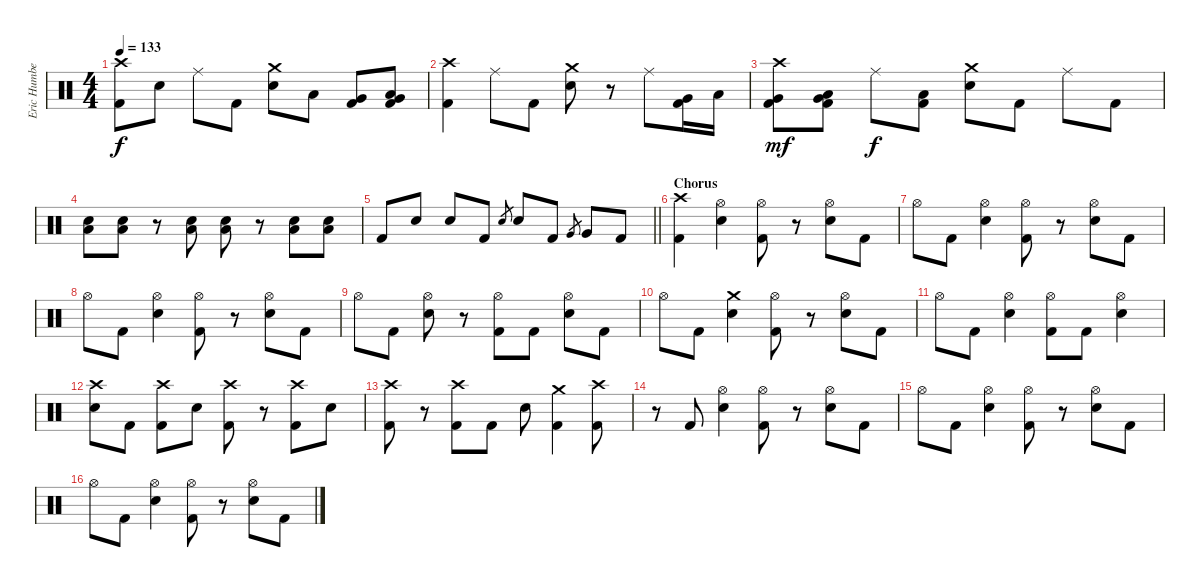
\track ("Eric Humbert (Drums)" "Eric Humbe") {instrument percussion}
\staff {score}
\articulation defaults
\ts (4 4)
\tempo 133
\clef neutral
\ks c
("Crash high (hit)" "Kick (hit) 2").8{dy f} "Electric Snare (hit)".8 "Ride (middle)".8 "Kick (hit) 2".8 ("Crash medium (hit)" "Electric Snare (hit)").8 "Low Tom (hit)".8 ("Very Low Tom (hit)" "Kick (hit) 2").8 ("Very Low Tom (hit)" "Low Floor Tom (hit)" "Kick (hit) 2").8 |
("Crash high (hit)" "Kick (hit) 2").4 "Ride (middle)".8 "Kick (hit) 2".8 ("Crash medium (hit)" "Electric Snare (hit)").8 r.8 "Ride (middle)".8 ("Very Low Tom (hit)" "Kick (hit) 2").16 "Low Tom (hit)".16 |
("Crash high (hit)" "Very Low Tom (hit)" "Kick (hit) 2").8{dy mf} ("Very Low Tom (hit)" "Low Floor Tom (hit)" "Kick (hit) 2").8 "Ride (middle)".8{dy f} ("Low Floor Tom (hit)" "Kick (hit) 2").8 ("Crash medium (hit)" "Electric Snare (hit)").8 "Kick (hit) 2".8 "Ride (middle)".8 "Kick (hit) 2".8 |
("Low Floor Tom (hit)" "Electric Snare (hit)").8 ("Low Floor Tom (hit)" "Electric Snare (hit)").8 r.8 ("Low Floor Tom (hit)" "Electric Snare (hit)").8 ("Low Floor Tom (hit)" "Electric Snare (hit)").8 r.8 ("Low Floor Tom (hit)" "Electric Snare (hit)").8 ("Low Floor Tom (hit)" "Electric Snare (hit)").8 |
\barLineRight lightlight "Kick (hit) 2".8 "Electric Snare (hit)".8 "Electric Snare (hit)".8 "Kick (hit) 2".8 "Electric Snare (hit)".8{gr} "Electric Snare (hit)".8 "Kick (hit) 2".8 "Very Low Tom (hit)".8{gr} "Very Low Tom (hit)".8 "Kick (hit) 2".8
|
\section ("" "Chorus")
("Crash high (hit)" "Kick (hit) 2").4 ("Hi-Hat (open)" "Electric Snare (hit)").4 ("Hi-Hat (open)" "Kick (hit) 2").8 r.8 ("Hi-Hat (open)" "Electric Snare (hit)").8 "Kick (hit) 2".8 |
"Hi-Hat (open)".8 "Kick (hit) 2".8 ("Hi-Hat (open)" "Electric Snare (hit)").4 ("Hi-Hat (open)" "Kick (hit) 2").8 r.8 ("Hi-Hat (open)" "Electric Snare (hit)").8 "Kick (hit) 2".8 |
"Hi-Hat (open)".8 "Kick (hit) 2".8 ("Hi-Hat (open)" "Electric Snare (hit)").4 ("Hi-Hat (open)" "Kick (hit) 2").8 r.8 ("Hi-Hat (open)" "Electric Snare (hit)").8 "Kick (hit) 2".8 |
"Hi-Hat (open)".8 "Kick (hit) 2".8 ("Hi-Hat (open)" "Electric Snare (hit)").8 r.8 ("Hi-Hat (open)" "Kick (hit) 2").8 "Kick (hit) 2".8 ("Hi-Hat (open)" "Electric Snare (hit)").8 "Kick (hit) 2".8 |
"Hi-Hat (open)".8 "Kick (hit) 2".8 ("Crash medium (hit)" "Electric Snare (hit)").4 ("Hi-Hat (open)" "Kick (hit) 2").8 r.8 ("Hi-Hat (open)" "Electric Snare (hit)").8 "Kick (hit) 2".8 |
"Hi-Hat (open)".8 "Kick (hit) 2".8 ("Hi-Hat (open)" "Electric Snare (hit)").4 ("Hi-Hat (open)" "Kick (hit) 2").8 "Kick (hit) 2".8 ("Hi-Hat (open)" "Electric Snare (hit)").4 |
("Crash high (hit)" "Electric Snare (hit)").8 "Kick (hit) 2".8 ("Crash high (hit)" "Kick (hit) 2").8 "Electric Snare (hit)".8 ("Crash high (hit)" "Kick (hit) 2").8 r.8 ("Crash high (hit)" "Kick (hit) 2").8 "Electric Snare (hit)".8 |
("Crash high (hit)" "Kick (hit) 2").8 r.8 ("Crash high (hit)" "Kick (hit) 2").8 "Kick (hit) 2".8 "Electric Snare (hit)".8 ("Crash medium (hit)" "Kick (hit) 2").4 ("Crash high (hit)" "Kick (hit) 2").8 |
r.8 "Kick (hit) 2".8 ("Hi-Hat (open)" "Electric Snare (hit)").4 ("Hi-Hat (open)" "Kick (hit) 2").8 r.8 ("Hi-Hat (open)" "Electric Snare (hit)").8 "Kick (hit) 2".8 |
"Hi-Hat (open)".8 "Kick (hit) 2".8 ("Hi-Hat (open)" "Electric Snare (hit)").4 ("Hi-Hat (open)" "Kick (hit) 2").8 r.8 ("Hi-Hat (open)" "Electric Snare (hit)").8 "Kick (hit) 2".8 |
"Hi-Hat (open)".8 "Kick (hit) 2".8 ("Hi-Hat (open)" "Electric Snare (hit)").4 ("Hi-Hat (open)" "Kick (hit) 2").8 r.8 ("Hi-Hat (open)" "Electric Snare (hit)").8 "Kick (hit) 2".8
